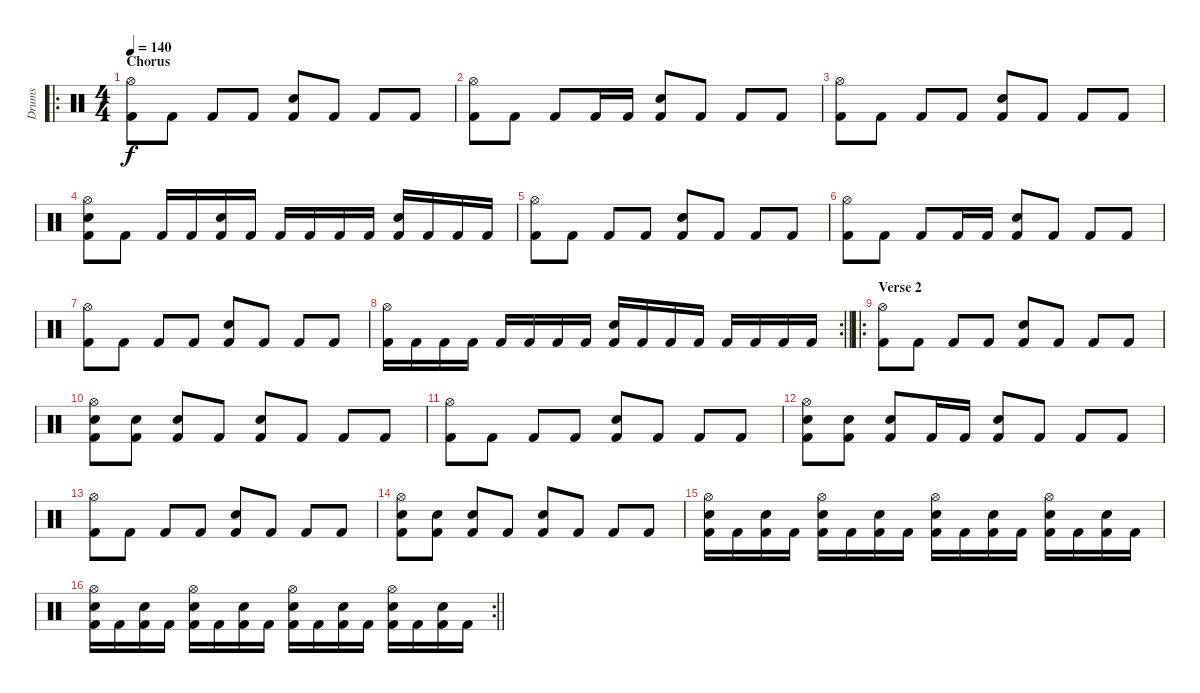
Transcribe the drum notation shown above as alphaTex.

\track ("Drums" "Drums") {instrument percussion}
\staff {score}
\articulation defaults
\ro
\ts (4 4)
\section ("" "Chorus")
\tempo 140
\clef neutral
\ks c
("Hi-Hat (open)" "Kick (hit) 2").8{dy f} "Kick (hit) 2".8 "Kick (hit) 2".8 "Kick (hit) 2".8 ("Snare (hit) 2" "Kick (hit) 2").8 "Kick (hit) 2".8 "Kick (hit) 2".8 "Kick (hit) 2".8 |
("Hi-Hat (open)" "Kick (hit) 2").8 "Kick (hit) 2".8 "Kick (hit) 2".8 "Kick (hit) 2".16 "Kick (hit) 2".16 ("Snare (hit) 2" "Kick (hit) 2").8 "Kick (hit) 2".8 "Kick (hit) 2".8 "Kick (hit) 2".8 |
("Hi-Hat (open)" "Kick (hit) 2").8 "Kick (hit) 2".8 "Kick (hit) 2".8 "Kick (hit) 2".8 ("Snare (hit) 2" "Kick (hit) 2").8 "Kick (hit) 2".8 "Kick (hit) 2".8 "Kick (hit) 2".8 |
("Hi-Hat (open)" "Snare (hit) 2" "Kick (hit) 2").8 "Kick (hit) 2".8 "Kick (hit) 2".16 "Kick (hit) 2".16 ("Snare (hit) 2" "Kick (hit) 2").16 "Kick (hit) 2".16 "Kick (hit) 2".16 "Kick (hit) 2".16 "Kick (hit) 2".16 "Kick (hit) 2".16 ("Snare (hit) 2" "Kick (hit) 2").16 "Kick (hit) 2".16 "Kick (hit) 2".16 "Kick (hit) 2".16 |
("Hi-Hat (open)" "Kick (hit) 2").8 "Kick (hit) 2".8 "Kick (hit) 2".8 "Kick (hit) 2".8 ("Snare (hit) 2" "Kick (hit) 2").8 "Kick (hit) 2".8 "Kick (hit) 2".8 "Kick (hit) 2".8 |
("Hi-Hat (open)" "Kick (hit) 2").8 "Kick (hit) 2".8 "Kick (hit) 2".8 "Kick (hit) 2".16 "Kick (hit) 2".16 ("Snare (hit) 2" "Kick (hit) 2").8 "Kick (hit) 2".8 "Kick (hit) 2".8 "Kick (hit) 2".8 |
("Hi-Hat (open)" "Kick (hit) 2").8 "Kick (hit) 2".8 "Kick (hit) 2".8 "Kick (hit) 2".8 ("Snare (hit) 2" "Kick (hit) 2").8 "Kick (hit) 2".8 "Kick (hit) 2".8 "Kick (hit) 2".8 |
\rc 2
\barLineRight lightlight
("Hi-Hat (open)" "Kick (hit) 2").16 "Kick (hit) 2".16 "Kick (hit) 2".16 "Kick (hit) 2".16 "Kick (hit) 2".16 "Kick (hit) 2".16 "Kick (hit) 2".16 "Kick (hit) 2".16 ("Snare (hit) 2" "Kick (hit) 2").16 "Kick (hit) 2".16 "Kick (hit) 2".16 "Kick (hit) 2".16 "Kick (hit) 2".16 "Kick (hit) 2".16 "Kick (hit) 2".16 "Kick (hit) 2".16 |
\ro
\section ("" "Verse 2")
("Hi-Hat (open)" "Kick (hit) 2").8 "Kick (hit) 2".8 "Kick (hit) 2".8 "Kick (hit) 2".8 ("Snare (hit) 2" "Kick (hit) 2").8 "Kick (hit) 2".8 "Kick (hit) 2".8 "Kick (hit) 2".8 |
("Hi-Hat (open)" "Snare (hit) 2" "Kick (hit) 2").8 ("Snare (hit) 2" "Kick (hit) 2").8 ("Snare (hit) 2" "Kick (hit) 2").8 "Kick (hit) 2".8 ("Snare (hit) 2" "Kick (hit) 2").8 "Kick (hit) 2".8 "Kick (hit) 2".8 "Kick (hit) 2".8 |
("Hi-Hat (open)" "Kick (hit) 2").8 "Kick (hit) 2".8 "Kick (hit) 2".8 "Kick (hit) 2".8 ("Snare (hit) 2" "Kick (hit) 2").8 "Kick (hit) 2".8 "Kick (hit) 2".8 "Kick (hit) 2".8 |
("Hi-Hat (open)" "Snare (hit) 2" "Kick (hit) 2").8 ("Snare (hit) 2" "Kick (hit) 2").8 ("Snare (hit) 2" "Kick (hit) 2").8 "Kick (hit) 2".16 "Kick (hit) 2".16 ("Snare (hit) 2" "Kick (hit) 2").8 "Kick (hit) 2".8 "Kick (hit) 2".8 "Kick (hit) 2".8 |
("Hi-Hat (open)" "Kick (hit) 2").8 "Kick (hit) 2".8 "Kick (hit) 2".8 "Kick (hit) 2".8 ("Snare (hit) 2" "Kick (hit) 2").8 "Kick (hit) 2".8 "Kick (hit) 2".8 "Kick (hit) 2".8 |
("Hi-Hat (open)" "Snare (hit) 2" "Kick (hit) 2").8 ("Snare (hit) 2" "Kick (hit) 2").8 ("Snare (hit) 2" "Kick (hit) 2").8 "Kick (hit) 2".8 ("Snare (hit) 2" "Kick (hit) 2").8 "Kick (hit) 2".8 "Kick (hit) 2".8 "Kick (hit) 2".8 |
("Hi-Hat (open)" "Snare (hit) 2" "Kick (hit) 2").16 "Kick (hit) 2".16 ("Snare (hit) 2" "Kick (hit) 2").16 "Kick (hit) 2".16 ("Hi-Hat (open)" "Snare (hit) 2" "Kick (hit) 2").16 "Kick (hit) 2".16 ("Snare (hit) 2" "Kick (hit) 2").16 "Kick (hit) 2".16 ("Hi-Hat (open)" "Snare (hit) 2" "Kick (hit) 2").16 "Kick (hit) 2".16 ("Snare (hit) 2" "Kick (hit) 2").16 "Kick (hit) 2".16 ("Hi-Hat (open)" "Snare (hit) 2" "Kick (hit) 2").16 "Kick (hit) 2".16 ("Snare (hit) 2" "Kick (hit) 2").16 "Kick (hit) 2".16 |
\rc 2
\barLineRight lightlight
("Hi-Hat (open)" "Snare (hit) 2" "Kick (hit) 2").16 "Kick (hit) 2".16 ("Snare (hit) 2" "Kick (hit) 2").16 "Kick (hit) 2".16 ("Hi-Hat (open)" "Snare (hit) 2" "Kick (hit) 2").16 "Kick (hit) 2".16 ("Snare (hit) 2" "Kick (hit) 2").16 "Kick (hit) 2".16 ("Hi-Hat (open)" "Snare (hit) 2" "Kick (hit) 2").16 "Kick (hit) 2".16 ("Snare (hit) 2" "Kick (hit) 2").16 "Kick (hit) 2".16 ("Hi-Hat (open)" "Snare (hit) 2" "Kick (hit) 2").16 "Kick (hit) 2".16 ("Snare (hit) 2" "Kick (hit) 2").16 "Kick (hit) 2".16
